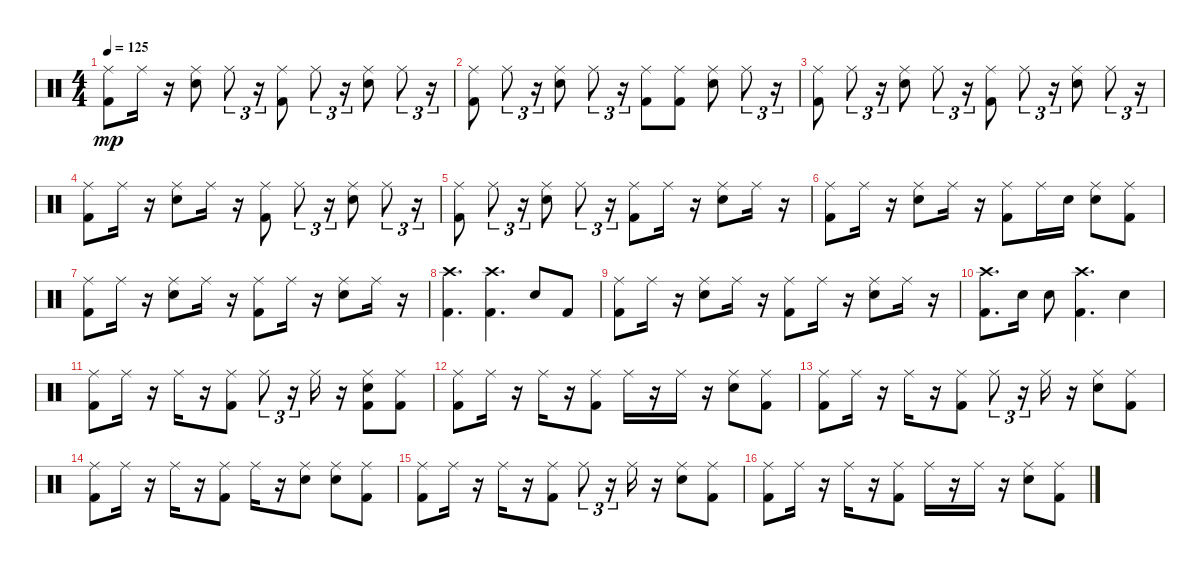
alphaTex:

\track "" {instrument percussion}
\staff {score}
\articulation defaults
\ts (4 4)
\tempo 125
\clef neutral
\ks c
("Ride (middle)" "Kick (hit) 2").8{dy mp} "Ride (middle)".16 r.16 ("Ride (middle)" "Snare (hit) 2").8 "Ride (middle)".8{tu (3 2)} r.16{tu (3 2)} ("Ride (middle)" "Kick (hit) 2").8 "Ride (middle)".8{tu (3 2)} r.16{tu (3 2)} ("Ride (middle)" "Snare (hit) 2").8 "Ride (middle)".8{tu (3 2)} r.16{tu (3 2)} |
("Ride (middle)" "Kick (hit) 2").8 "Ride (middle)".8{tu (3 2)} r.16{tu (3 2)} ("Ride (middle)" "Snare (hit) 2").8 "Ride (middle)".8{tu (3 2)} r.16{tu (3 2)} ("Ride (middle)" "Kick (hit) 2").8 ("Ride (middle)" "Kick (hit) 2").8 ("Ride (middle)" "Snare (hit) 2").8 "Ride (middle)".8{tu (3 2)} r.16{tu (3 2)} |
("Ride (middle)" "Kick (hit) 2").8 "Ride (middle)".8{tu (3 2)} r.16{tu (3 2)} ("Ride (middle)" "Snare (hit) 2").8 "Ride (middle)".8{tu (3 2)} r.16{tu (3 2)} ("Ride (middle)" "Kick (hit) 2").8 "Ride (middle)".8{tu (3 2)} r.16{tu (3 2)} ("Ride (middle)" "Snare (hit) 2").8 "Ride (middle)".8{tu (3 2)} r.16{tu (3 2)} |
("Ride (middle)" "Kick (hit) 2").8 "Ride (middle)".16 r.16 ("Ride (middle)" "Snare (hit) 2").8 "Ride (middle)".16 r.16 ("Ride (middle)" "Kick (hit) 2").8 "Ride (middle)".8{tu (3 2)} r.16{tu (3 2)} ("Ride (middle)" "Snare (hit) 2").8 "Ride (middle)".8{tu (3 2)} r.16{tu (3 2)} |
("Ride (middle)" "Kick (hit) 2").8 "Ride (middle)".8{tu (3 2)} r.16{tu (3 2)} ("Ride (middle)" "Snare (hit) 2").8 "Ride (middle)".8{tu (3 2)} r.16{tu (3 2)} ("Ride (middle)" "Kick (hit) 2").8 "Ride (middle)".16 r.16 ("Ride (middle)" "Snare (hit) 2").8 "Ride (middle)".16 r.16 |
("Ride (middle)" "Kick (hit) 2").8 "Ride (middle)".16 r.16 ("Ride (middle)" "Snare (hit) 2").8 "Ride (middle)".16 r.16 ("Ride (middle)" "Kick (hit) 2").8 "Ride (middle)".16 "Snare (hit) 2".16 ("Ride (middle)" "Snare (hit) 2").8 ("Ride (middle)" "Kick (hit) 2").8 |
("Ride (middle)" "Kick (hit) 2").8 "Ride (middle)".16 r.16 ("Ride (middle)" "Snare (hit) 2").8 "Ride (middle)".16 r.16 ("Ride (middle)" "Kick (hit) 2").8 "Ride (middle)".16 r.16 ("Ride (middle)" "Snare (hit) 2").8 "Ride (middle)".16 r.16 |
("Kick (hit) 2" "Crash high (hit)").4{d} ("Crash high (hit)" "Kick (hit) 2").4{d} "Snare (hit) 2".8 "Kick (hit) 2".8 |
("Ride (middle)" "Kick (hit) 2").8 "Ride (middle)".16 r.16 ("Ride (middle)" "Snare (hit) 2").8 "Ride (middle)".16 r.16 ("Ride (middle)" "Kick (hit) 2").8 "Ride (middle)".16 r.16 ("Ride (middle)" "Snare (hit) 2").8 "Ride (middle)".16 r.16 |
("Crash high (hit)" "Kick (hit) 2").8{d} "Snare (hit) 2".16 "Snare (hit) 2".8 ("Crash high (hit)" "Kick (hit) 2").4{d} "Snare (hit) 2".4 |
("Ride (middle)" "Kick (hit) 2").8 "Ride (middle)".16 r.16 "Ride (middle)".16 r.16 ("Ride (middle)" "Kick (hit) 2").8 "Ride (middle)".8{tu (3 2)} r.16{tu (3 2)} "Ride (middle)".16 r.16 ("Ride (middle)" "Kick (hit) 2" "Snare (hit) 2").8 ("Ride (middle)" "Kick (hit) 2").8 |
("Ride (middle)" "Kick (hit) 2").8 "Ride (middle)".16 r.16 "Ride (middle)".16 r.16 ("Ride (middle)" "Kick (hit) 2").8 "Ride (middle)".16 r.16 "Ride (middle)".16 r.16 ("Ride (middle)" "Snare (hit) 2").8 ("Ride (middle)" "Kick (hit) 2").8 |
("Ride (middle)" "Kick (hit) 2").8 "Ride (middle)".16 r.16 "Ride (middle)".16 r.16 ("Ride (middle)" "Kick (hit) 2").8 "Ride (middle)".8{tu (3 2)} r.16{tu (3 2)} "Ride (middle)".16 r.16 ("Ride (middle)" "Snare (hit) 2").8 ("Ride (middle)" "Kick (hit) 2").8 |
("Ride (middle)" "Kick (hit) 2").8 "Ride (middle)".16 r.16 "Ride (middle)".16 r.16 ("Ride (middle)" "Kick (hit) 2").8 "Ride (middle)".16 r.16 ("Ride (middle)" "Snare (hit) 2").8 ("Ride (middle)" "Snare (hit) 2").8 ("Ride (middle)" "Kick (hit) 2").8 |
("Ride (middle)" "Kick (hit) 2").8 "Ride (middle)".16 r.16 "Ride (middle)".16 r.16 ("Ride (middle)" "Kick (hit) 2").8 "Ride (middle)".8{tu (3 2)} r.16{tu (3 2)} "Ride (middle)".16 r.16 ("Ride (middle)" "Snare (hit) 2").8 ("Ride (middle)" "Kick (hit) 2").8 |
("Ride (middle)" "Kick (hit) 2").8 "Ride (middle)".16 r.16 "Ride (middle)".16 r.16 ("Ride (middle)" "Kick (hit) 2").8 "Ride (middle)".16 r.16 "Ride (middle)".16 r.16 ("Ride (middle)" "Snare (hit) 2").8 ("Ride (middle)" "Kick (hit) 2").8
